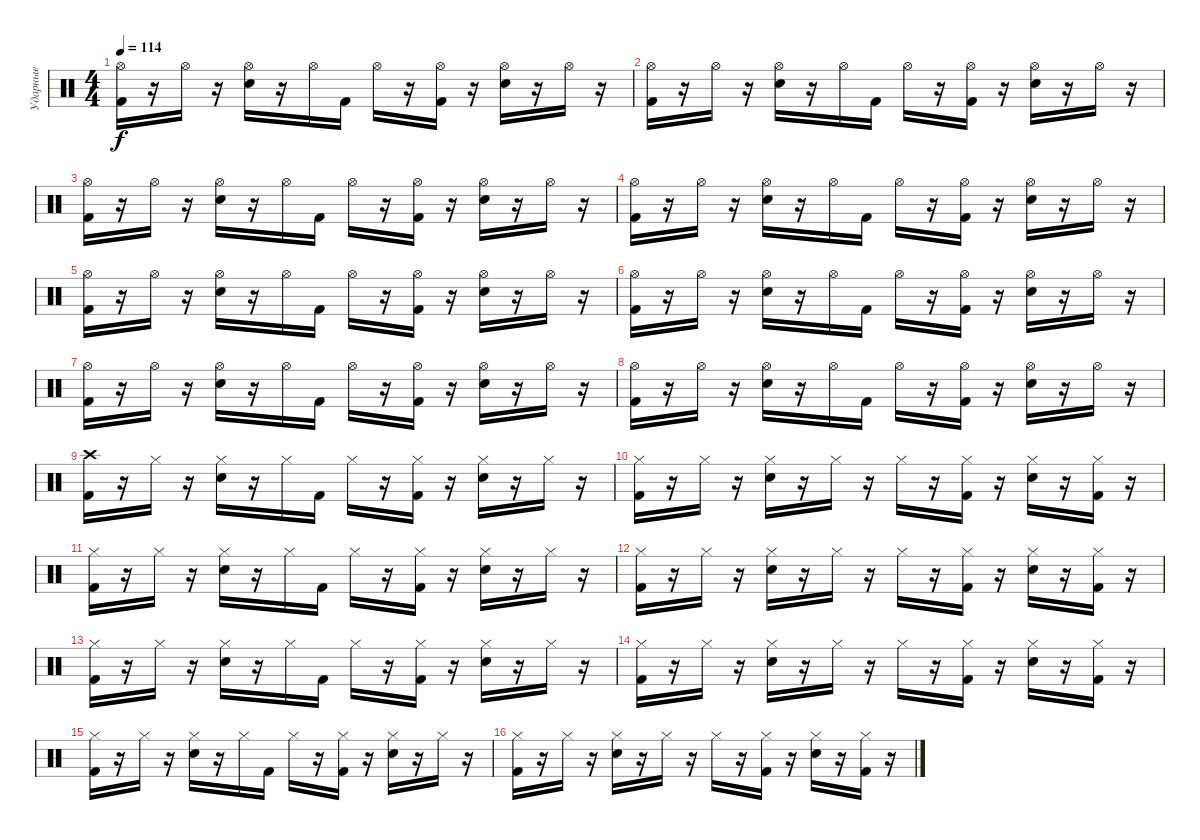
\track ("Ударные" "Ударные") {instrument percussion}
\staff {score}
\articulation defaults
\ts (4 4)
\tempo 114
\clef neutral
\ks c
("Kick (hit) 2" "Hi-Hat (open)").16{dy f} r.16 "Hi-Hat (open)".16 r.16 ("Electric Snare (hit)" "Hi-Hat (open)").16 r.16 "Hi-Hat (open)".16 "Kick (hit) 2".16 "Hi-Hat (open)".16 r.16 ("Kick (hit) 2" "Hi-Hat (open)").16 r.16 ("Electric Snare (hit)" "Hi-Hat (open)").16 r.16 "Hi-Hat (open)".16 r.16 |
("Kick (hit) 2" "Hi-Hat (open)").16 r.16 "Hi-Hat (open)".16 r.16 ("Electric Snare (hit)" "Hi-Hat (open)").16 r.16 "Hi-Hat (open)".16 "Kick (hit) 2".16 "Hi-Hat (open)".16 r.16 ("Kick (hit) 2" "Hi-Hat (open)").16 r.16 ("Electric Snare (hit)" "Hi-Hat (open)").16 r.16 "Hi-Hat (open)".16 r.16 |
("Kick (hit) 2" "Hi-Hat (open)").16 r.16 "Hi-Hat (open)".16 r.16 ("Electric Snare (hit)" "Hi-Hat (open)").16 r.16 "Hi-Hat (open)".16 "Kick (hit) 2".16 "Hi-Hat (open)".16 r.16 ("Kick (hit) 2" "Hi-Hat (open)").16 r.16 ("Electric Snare (hit)" "Hi-Hat (open)").16 r.16 "Hi-Hat (open)".16 r.16 |
("Kick (hit) 2" "Hi-Hat (open)").16 r.16 "Hi-Hat (open)".16 r.16 ("Electric Snare (hit)" "Hi-Hat (open)").16 r.16 "Hi-Hat (open)".16 "Kick (hit) 2".16 "Hi-Hat (open)".16 r.16 ("Kick (hit) 2" "Hi-Hat (open)").16 r.16 ("Electric Snare (hit)" "Hi-Hat (open)").16 r.16 "Hi-Hat (open)".16 r.16 |
("Kick (hit) 2" "Hi-Hat (open)").16 r.16 "Hi-Hat (open)".16 r.16 ("Electric Snare (hit)" "Hi-Hat (open)").16 r.16 "Hi-Hat (open)".16 "Kick (hit) 2".16 "Hi-Hat (open)".16 r.16 ("Kick (hit) 2" "Hi-Hat (open)").16 r.16 ("Electric Snare (hit)" "Hi-Hat (open)").16 r.16 "Hi-Hat (open)".16 r.16 |
("Kick (hit) 2" "Hi-Hat (open)").16 r.16 "Hi-Hat (open)".16 r.16 ("Electric Snare (hit)" "Hi-Hat (open)").16 r.16 "Hi-Hat (open)".16 "Kick (hit) 2".16 "Hi-Hat (open)".16 r.16 ("Kick (hit) 2" "Hi-Hat (open)").16 r.16 ("Electric Snare (hit)" "Hi-Hat (open)").16 r.16 "Hi-Hat (open)".16 r.16 |
("Kick (hit) 2" "Hi-Hat (open)").16 r.16 "Hi-Hat (open)".16 r.16 ("Electric Snare (hit)" "Hi-Hat (open)").16 r.16 "Hi-Hat (open)".16 "Kick (hit) 2".16 "Hi-Hat (open)".16 r.16 ("Kick (hit) 2" "Hi-Hat (open)").16 r.16 ("Electric Snare (hit)" "Hi-Hat (open)").16 r.16 "Hi-Hat (open)".16 r.16 |
("Kick (hit) 2" "Hi-Hat (open)").16 r.16 "Hi-Hat (open)".16 r.16 ("Electric Snare (hit)" "Hi-Hat (open)").16 r.16 "Hi-Hat (open)".16 "Kick (hit) 2".16 "Hi-Hat (open)".16 r.16 ("Kick (hit) 2" "Hi-Hat (open)").16 r.16 ("Electric Snare (hit)" "Hi-Hat (open)").16 r.16 "Hi-Hat (open)".16 r.16 |
("Kick (hit) 2" "Crash high (hit)").16 r.16 "Hi-Hat (closed)".16 r.16 ("Electric Snare (hit)" "Hi-Hat (closed)").16 r.16 "Hi-Hat (closed)".16 "Kick (hit) 2".16 "Hi-Hat (closed)".16 r.16 ("Kick (hit) 2" "Hi-Hat (closed)").16 r.16 ("Electric Snare (hit)" "Hi-Hat (closed)").16 r.16 "Hi-Hat (closed)".16 r.16 |
("Kick (hit) 2" "Hi-Hat (closed)").16 r.16 "Hi-Hat (closed)".16 r.16 ("Electric Snare (hit)" "Hi-Hat (closed)").16 r.16 "Hi-Hat (closed)".16 r.16 "Hi-Hat (closed)".16 r.16 ("Kick (hit) 2" "Hi-Hat (closed)").16 r.16 ("Electric Snare (hit)" "Hi-Hat (closed)").16 r.16 ("Kick (hit) 2" "Hi-Hat (closed)").16 r.16 |
("Kick (hit) 2" "Hi-Hat (closed)").16 r.16 "Hi-Hat (closed)".16 r.16 ("Electric Snare (hit)" "Hi-Hat (closed)").16 r.16 "Hi-Hat (closed)".16 "Kick (hit) 2".16 "Hi-Hat (closed)".16 r.16 ("Kick (hit) 2" "Hi-Hat (closed)").16 r.16 ("Electric Snare (hit)" "Hi-Hat (closed)").16 r.16 "Hi-Hat (closed)".16 r.16 |
("Kick (hit) 2" "Hi-Hat (closed)").16 r.16 "Hi-Hat (closed)".16 r.16 ("Electric Snare (hit)" "Hi-Hat (closed)").16 r.16 "Hi-Hat (closed)".16 r.16 "Hi-Hat (closed)".16 r.16 ("Kick (hit) 2" "Hi-Hat (closed)").16 r.16 ("Electric Snare (hit)" "Hi-Hat (closed)").16 r.16 ("Kick (hit) 2" "Hi-Hat (closed)").16 r.16 |
("Kick (hit) 2" "Hi-Hat (closed)").16 r.16 "Hi-Hat (closed)".16 r.16 ("Electric Snare (hit)" "Hi-Hat (closed)").16 r.16 "Hi-Hat (closed)".16 "Kick (hit) 2".16 "Hi-Hat (closed)".16 r.16 ("Kick (hit) 2" "Hi-Hat (closed)").16 r.16 ("Electric Snare (hit)" "Hi-Hat (closed)").16 r.16 "Hi-Hat (closed)".16 r.16 |
("Kick (hit) 2" "Hi-Hat (closed)").16 r.16 "Hi-Hat (closed)".16 r.16 ("Electric Snare (hit)" "Hi-Hat (closed)").16 r.16 "Hi-Hat (closed)".16 r.16 "Hi-Hat (closed)".16 r.16 ("Kick (hit) 2" "Hi-Hat (closed)").16 r.16 ("Electric Snare (hit)" "Hi-Hat (closed)").16 r.16 ("Kick (hit) 2" "Hi-Hat (closed)").16 r.16 |
("Kick (hit) 2" "Hi-Hat (closed)").16 r.16 "Hi-Hat (closed)".16 r.16 ("Electric Snare (hit)" "Hi-Hat (closed)").16 r.16 "Hi-Hat (closed)".16 "Kick (hit) 2".16 "Hi-Hat (closed)".16 r.16 ("Kick (hit) 2" "Hi-Hat (closed)").16 r.16 ("Electric Snare (hit)" "Hi-Hat (closed)").16 r.16 "Hi-Hat (closed)".16 r.16 |
("Kick (hit) 2" "Hi-Hat (closed)").16 r.16 "Hi-Hat (closed)".16 r.16 ("Electric Snare (hit)" "Hi-Hat (closed)").16 r.16 "Hi-Hat (closed)".16 r.16 "Hi-Hat (closed)".16 r.16 ("Kick (hit) 2" "Hi-Hat (closed)").16 r.16 ("Electric Snare (hit)" "Hi-Hat (closed)").16 r.16 ("Kick (hit) 2" "Hi-Hat (closed)").16 r.16
